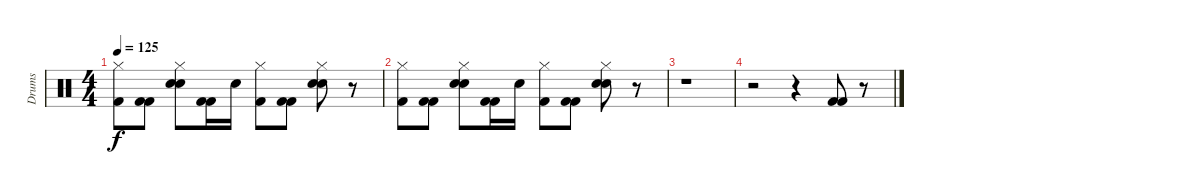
\track ("Drums" "Drums") {instrument percussion}
\staff {score}
\articulation defaults
\ts (4 4)
\tempo 125
\clef neutral
\ks c
("Hi-Hat (closed)" "Kick (hit) 2").8{dy f} ("Kick (hit) 2" "Kick (hit) 2").8 ("Hi-Hat (closed)" "Hand Clap (hit)" "Snare (hit) 2").8 ("Kick (hit) 2" "Kick (hit) 2").16 "Snare (hit) 2".16 ("Hi-Hat (closed)" "Kick (hit) 2").8 ("Kick (hit) 2" "Kick (hit) 2").8 ("Hi-Hat (closed)" "Hand Clap (hit)" "Snare (hit) 2").8 r.8 |
("Hi-Hat (closed)" "Kick (hit) 2").8 ("Kick (hit) 2" "Kick (hit) 2").8 ("Hi-Hat (closed)" "Hand Clap (hit)" "Snare (hit) 2").8 ("Kick (hit) 2" "Kick (hit) 2").16 "Snare (hit) 2".16 ("Hi-Hat (closed)" "Kick (hit) 2").8 ("Kick (hit) 2" "Kick (hit) 2").8 ("Hi-Hat (closed)" "Hand Clap (hit)" "Snare (hit) 2").8 r.8 |
r.1 |
r.2 r.4 ("Kick (hit) 2" "Kick (hit) 2").8 r.8
